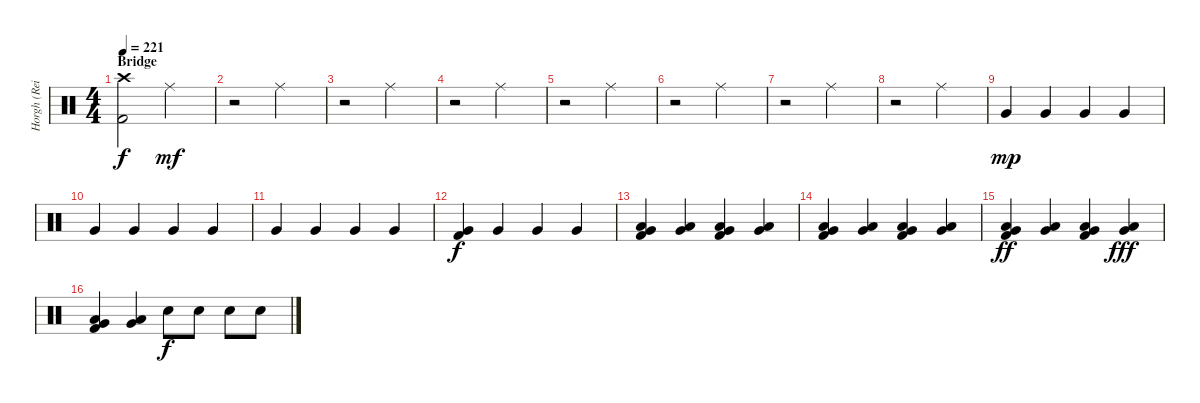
\track ("Horgh (Reidar Horghagen)" "Horgh (Rei") {instrument percussion}
\staff {score}
\articulation defaults
\ts (4 4)
\section ("" "Bridge")
\tempo 221
\clef neutral
\ks c
("Crash high (hit)" "Kick (hit) 2").2{dy f} "Ride (middle)".2{dy mf} |
r.2 "Ride (middle)".2 |
r.2 "Ride (middle)".2 |
r.2 "Ride (middle)".2 |
r.2 "Ride (middle)".2 |
r.2 "Ride (middle)".2 |
r.2 "Ride (middle)".2 |
r.2 "Ride (middle)".2 |
"Very Low Tom (hit)".4{dy mp} "Very Low Tom (hit)".4 "Very Low Tom (hit)".4 "Very Low Tom (hit)".4 |
"Very Low Tom (hit)".4 "Very Low Tom (hit)".4 "Very Low Tom (hit)".4 "Very Low Tom (hit)".4 |
"Very Low Tom (hit)".4 "Very Low Tom (hit)".4 "Very Low Tom (hit)".4 "Very Low Tom (hit)".4 |
("Very Low Tom (hit)" "Kick (hit) 2").4{dy f} "Very Low Tom (hit)".4 "Very Low Tom (hit)".4 "Very Low Tom (hit)".4 |
("Very Low Tom (hit)" "Low Floor Tom (hit)" "Kick (hit) 2").4 ("Very Low Tom (hit)" "Low Floor Tom (hit)").4 ("Very Low Tom (hit)" "Low Floor Tom (hit)" "Kick (hit) 2").4 ("Very Low Tom (hit)" "Low Floor Tom (hit)").4 |
("Very Low Tom (hit)" "Low Floor Tom (hit)" "Kick (hit) 2").4 ("Very Low Tom (hit)" "Low Floor Tom (hit)").4 ("Very Low Tom (hit)" "Low Floor Tom (hit)" "Kick (hit) 2").4 ("Very Low Tom (hit)" "Low Floor Tom (hit)").4 |
("Very Low Tom (hit)" "Low Floor Tom (hit)" "Kick (hit) 2").4{dy ff} ("Very Low Tom (hit)" "Low Floor Tom (hit)").4 ("Very Low Tom (hit)" "Low Floor Tom (hit)" "Kick (hit) 2").4 ("Very Low Tom (hit)" "Low Floor Tom (hit)").4{dy fff} |
("Very Low Tom (hit)" "Low Floor Tom (hit)" "Kick (hit) 2").4 ("Very Low Tom (hit)" "Low Floor Tom (hit)").4 "Snare (hit) 2".8{dy f} "Snare (hit) 2".8 "Snare (hit) 2".8 "Snare (hit) 2".8
